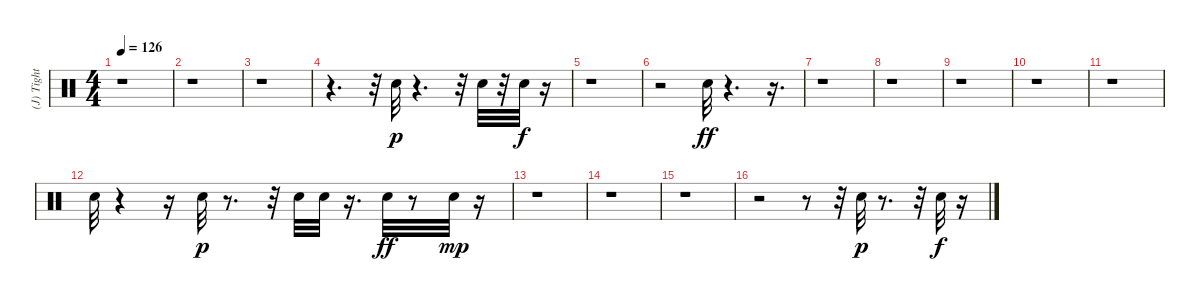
\track ("(J) Tight Snare" "(J) Tight ") {instrument percussion}
\staff {score}
\articulation defaults
\ts (4 4)
\tempo 126
\clef neutral
\ks c
r.1{dy p} |
r.1 |
r.1 |
r.4{d} r.32 "Electric Snare (hit)".32 r.4{d} r.32 "Electric Snare (hit)".32 r.32 "Electric Snare (hit)".32{dy f} r.16 |
r.1 |
r.2 "Electric Snare (hit)".32{dy ff} r.4{d} r.16{d} |
r.1 |
r.1 |
r.1 |
r.1 |
r.1 |
"Electric Snare (hit)".32 r.4 r.16 "Electric Snare (hit)".32{dy p} r.8{d} r.32 "Electric Snare (hit)".32 "Electric Snare (hit)".32 r.16{d} "Electric Snare (hit)".32{dy ff} r.8 "Electric Snare (hit)".32{dy mp} r.16 |
r.1 |
r.1 |
r.1 |
r.2 r.8 r.32 "Electric Snare (hit)".32{dy p} r.8{d} r.32 "Electric Snare (hit)".32{dy f} r.16
